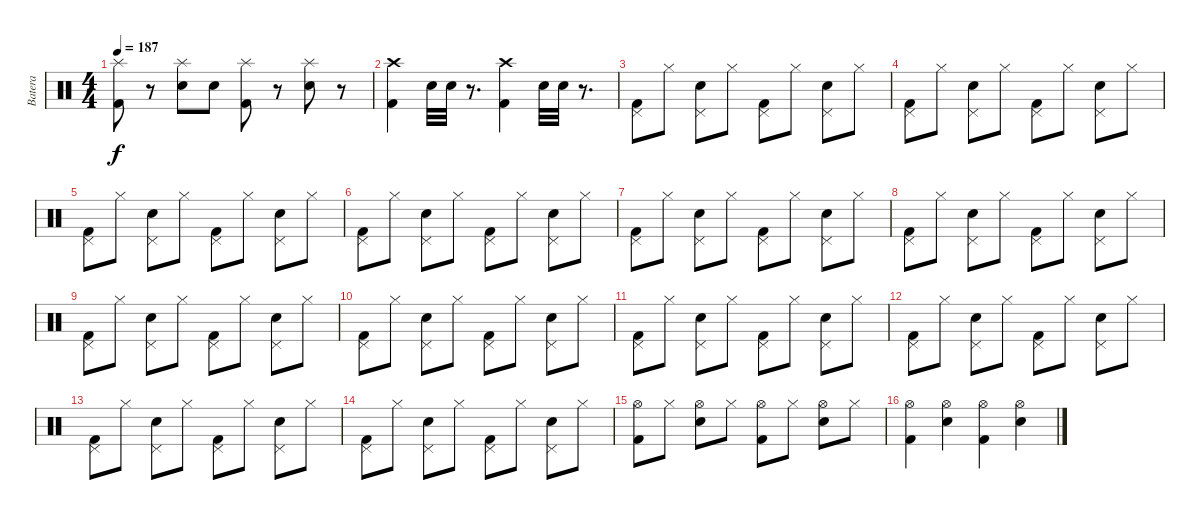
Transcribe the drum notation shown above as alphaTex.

\track ("Batera" "Batera") {instrument percussion}
\staff {score}
\articulation defaults
\ts (4 4)
\tempo 187
\clef neutral
\ks c
("Splash (hit)" "Kick (hit) 2").8{dy f} r.8 ("Splash (hit)" "Electric Snare (hit)").8 "Electric Snare (hit)".8 ("Splash (hit)" "Kick (hit) 2").8 r.8 ("Splash (hit)" "Electric Snare (hit)").8 r.8 |
("Crash high (hit)" "Kick (hit) 2").4 "Electric Snare (hit)".32 "Electric Snare (hit)".32 r.8{d} ("Crash high (hit)" "Kick (hit) 2").4 "Electric Snare (hit)".32 "Electric Snare (hit)".32 r.8{d} |
("Pedal Hi-Hat (hit)" "Kick (hit) 2").8 "Hi-Hat (closed)".8 ("Pedal Hi-Hat (hit)" "Electric Snare (hit)").8 "Hi-Hat (closed)".8 ("Pedal Hi-Hat (hit)" "Kick (hit) 2").8 "Hi-Hat (closed)".8 ("Pedal Hi-Hat (hit)" "Electric Snare (hit)").8 "Hi-Hat (closed)".8 |
("Pedal Hi-Hat (hit)" "Kick (hit) 2").8 "Hi-Hat (closed)".8 ("Pedal Hi-Hat (hit)" "Electric Snare (hit)").8 "Hi-Hat (closed)".8 ("Pedal Hi-Hat (hit)" "Kick (hit) 2").8 "Hi-Hat (closed)".8 ("Pedal Hi-Hat (hit)" "Electric Snare (hit)").8 "Hi-Hat (closed)".8 |
("Pedal Hi-Hat (hit)" "Kick (hit) 2").8 "Hi-Hat (closed)".8 ("Pedal Hi-Hat (hit)" "Electric Snare (hit)").8 "Hi-Hat (closed)".8 ("Pedal Hi-Hat (hit)" "Kick (hit) 2").8 "Hi-Hat (closed)".8 ("Pedal Hi-Hat (hit)" "Electric Snare (hit)").8 "Hi-Hat (closed)".8 |
("Pedal Hi-Hat (hit)" "Kick (hit) 2").8 "Hi-Hat (closed)".8 ("Pedal Hi-Hat (hit)" "Electric Snare (hit)").8 "Hi-Hat (closed)".8 ("Pedal Hi-Hat (hit)" "Kick (hit) 2").8 "Hi-Hat (closed)".8 ("Pedal Hi-Hat (hit)" "Electric Snare (hit)").8 "Hi-Hat (closed)".8 |
("Pedal Hi-Hat (hit)" "Kick (hit) 2").8 "Hi-Hat (closed)".8 ("Pedal Hi-Hat (hit)" "Electric Snare (hit)").8 "Hi-Hat (closed)".8 ("Pedal Hi-Hat (hit)" "Kick (hit) 2").8 "Hi-Hat (closed)".8 ("Pedal Hi-Hat (hit)" "Electric Snare (hit)").8 "Hi-Hat (closed)".8 |
("Pedal Hi-Hat (hit)" "Kick (hit) 2").8 "Hi-Hat (closed)".8 ("Pedal Hi-Hat (hit)" "Electric Snare (hit)").8 "Hi-Hat (closed)".8 ("Pedal Hi-Hat (hit)" "Kick (hit) 2").8 "Hi-Hat (closed)".8 ("Pedal Hi-Hat (hit)" "Electric Snare (hit)").8 "Hi-Hat (closed)".8 |
("Pedal Hi-Hat (hit)" "Kick (hit) 2").8 "Hi-Hat (closed)".8 ("Pedal Hi-Hat (hit)" "Electric Snare (hit)").8 "Hi-Hat (closed)".8 ("Pedal Hi-Hat (hit)" "Kick (hit) 2").8 "Hi-Hat (closed)".8 ("Pedal Hi-Hat (hit)" "Electric Snare (hit)").8 "Hi-Hat (closed)".8 |
("Pedal Hi-Hat (hit)" "Kick (hit) 2").8 "Hi-Hat (closed)".8 ("Pedal Hi-Hat (hit)" "Electric Snare (hit)").8 "Hi-Hat (closed)".8 ("Pedal Hi-Hat (hit)" "Kick (hit) 2").8 "Hi-Hat (closed)".8 ("Pedal Hi-Hat (hit)" "Electric Snare (hit)").8 "Hi-Hat (closed)".8 |
("Pedal Hi-Hat (hit)" "Kick (hit) 2").8 "Hi-Hat (closed)".8 ("Pedal Hi-Hat (hit)" "Electric Snare (hit)").8 "Hi-Hat (closed)".8 ("Pedal Hi-Hat (hit)" "Kick (hit) 2").8 "Hi-Hat (closed)".8 ("Pedal Hi-Hat (hit)" "Electric Snare (hit)").8 "Hi-Hat (closed)".8 |
("Pedal Hi-Hat (hit)" "Kick (hit) 2").8 "Hi-Hat (closed)".8 ("Pedal Hi-Hat (hit)" "Electric Snare (hit)").8 "Hi-Hat (closed)".8 ("Pedal Hi-Hat (hit)" "Kick (hit) 2").8 "Hi-Hat (closed)".8 ("Pedal Hi-Hat (hit)" "Electric Snare (hit)").8 "Hi-Hat (closed)".8 |
("Pedal Hi-Hat (hit)" "Kick (hit) 2").8 "Hi-Hat (closed)".8 ("Pedal Hi-Hat (hit)" "Electric Snare (hit)").8 "Hi-Hat (closed)".8 ("Pedal Hi-Hat (hit)" "Kick (hit) 2").8 "Hi-Hat (closed)".8 ("Pedal Hi-Hat (hit)" "Electric Snare (hit)").8 "Hi-Hat (closed)".8 |
("Pedal Hi-Hat (hit)" "Kick (hit) 2").8 "Hi-Hat (closed)".8 ("Pedal Hi-Hat (hit)" "Electric Snare (hit)").8 "Hi-Hat (closed)".8 ("Pedal Hi-Hat (hit)" "Kick (hit) 2").8 "Hi-Hat (closed)".8 ("Pedal Hi-Hat (hit)" "Electric Snare (hit)").8 "Hi-Hat (closed)".8 |
("Hi-Hat (open)" "Kick (hit) 2").8 "Hi-Hat (closed)".8 ("Hi-Hat (open)" "Electric Snare (hit)").8 "Hi-Hat (closed)".8 ("Hi-Hat (open)" "Kick (hit) 2").8 "Hi-Hat (closed)".8 ("Hi-Hat (open)" "Electric Snare (hit)").8 "Hi-Hat (closed)".8 |
("Hi-Hat (open)" "Kick (hit) 2").4 ("Hi-Hat (open)" "Electric Snare (hit)").4 ("Hi-Hat (open)" "Kick (hit) 2").4 ("Hi-Hat (open)" "Electric Snare (hit)").4
